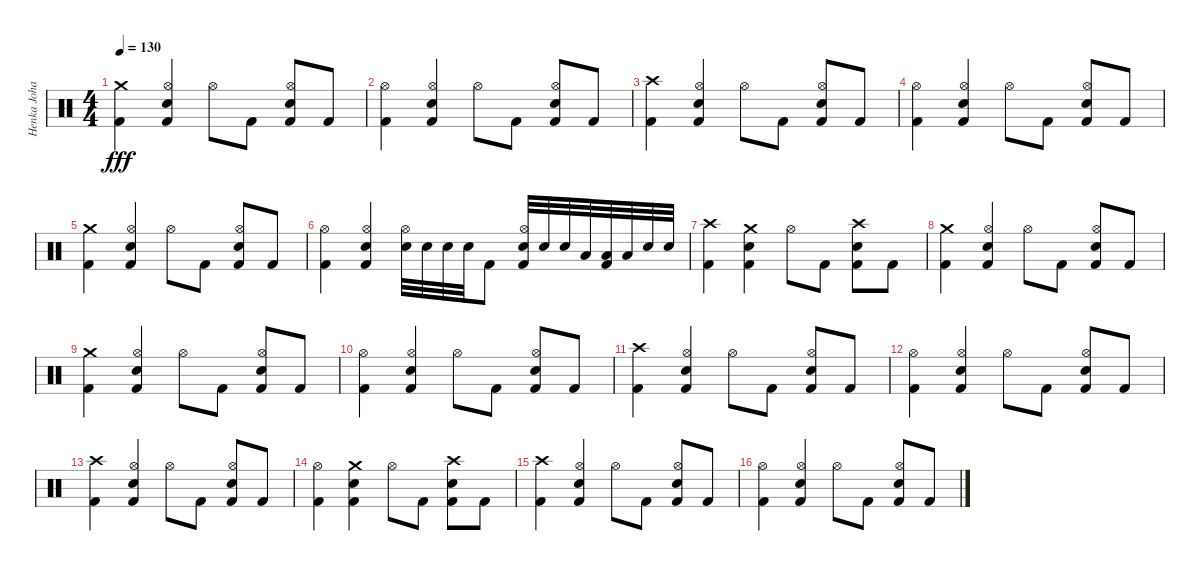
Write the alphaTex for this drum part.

\track ("Henka Johansson" "Henka Joha") {instrument percussion}
\staff {score}
\articulation defaults
\ts (4 4)
\tempo 130
\clef neutral
\ks c
("Crash medium (hit)" "Kick (hit) 2").4{dy fff} ("Hi-Hat (open)" "Electric Snare (hit)" "Kick (hit) 2").4 "Hi-Hat (open)".8 "Kick (hit) 2".8 ("Hi-Hat (open)" "Electric Snare (hit)" "Kick (hit) 2").8 "Kick (hit) 2".8 |
("Hi-Hat (open)" "Kick (hit) 2").4 ("Hi-Hat (open)" "Electric Snare (hit)" "Kick (hit) 2").4 "Hi-Hat (open)".8 "Kick (hit) 2".8 ("Hi-Hat (open)" "Electric Snare (hit)" "Kick (hit) 2").8 "Kick (hit) 2".8 |
("Crash high (hit)" "Kick (hit) 2").4 ("Hi-Hat (open)" "Electric Snare (hit)" "Kick (hit) 2").4 "Hi-Hat (open)".8 "Kick (hit) 2".8 ("Hi-Hat (open)" "Electric Snare (hit)" "Kick (hit) 2").8 "Kick (hit) 2".8 |
("Hi-Hat (open)" "Kick (hit) 2").4 ("Hi-Hat (open)" "Electric Snare (hit)" "Kick (hit) 2").4 "Hi-Hat (open)".8 "Kick (hit) 2".8 ("Hi-Hat (open)" "Electric Snare (hit)" "Kick (hit) 2").8 "Kick (hit) 2".8 |
("Crash medium (hit)" "Kick (hit) 2").4 ("Hi-Hat (open)" "Electric Snare (hit)" "Kick (hit) 2").4 "Hi-Hat (open)".8 "Kick (hit) 2".8 ("Hi-Hat (open)" "Electric Snare (hit)" "Kick (hit) 2").8 "Kick (hit) 2".8 |
("Hi-Hat (open)" "Kick (hit) 2").4 ("Hi-Hat (open)" "Electric Snare (hit)" "Kick (hit) 2").4 ("Hi-Hat (open)" "Electric Snare (hit)").32 "Electric Snare (hit)".32 "Electric Snare (hit)".32 "Electric Snare (hit)".32 "Kick (hit) 2".8 ("Hi-Hat (open)" "Electric Snare (hit)" "Kick (hit) 2").32 "Electric Snare (hit)".32 "Electric Snare (hit)".32 "Low Tom (hit)".32 ("Low Tom (hit)" "Kick (hit) 2").32 "Low Tom (hit)".32 "Electric Snare (hit)".32 "Electric Snare (hit)".32 |
("Crash high (hit)" "Kick (hit) 2").4 ("Crash medium (hit)" "Electric Snare (hit)" "Kick (hit) 2").4 "Hi-Hat (open)".8 "Kick (hit) 2".8 ("Crash high (hit)" "Electric Snare (hit)" "Kick (hit) 2").8 "Kick (hit) 2".8 |
("Crash medium (hit)" "Kick (hit) 2").4 ("Hi-Hat (open)" "Electric Snare (hit)" "Kick (hit) 2").4 "Hi-Hat (open)".8 "Kick (hit) 2".8 ("Hi-Hat (open)" "Electric Snare (hit)" "Kick (hit) 2").8 "Kick (hit) 2".8 |
("Crash medium (hit)" "Kick (hit) 2").4 ("Hi-Hat (open)" "Electric Snare (hit)" "Kick (hit) 2").4 "Hi-Hat (open)".8 "Kick (hit) 2".8 ("Hi-Hat (open)" "Electric Snare (hit)" "Kick (hit) 2").8 "Kick (hit) 2".8 |
("Hi-Hat (open)" "Kick (hit) 2").4 ("Hi-Hat (open)" "Electric Snare (hit)" "Kick (hit) 2").4 "Hi-Hat (open)".8 "Kick (hit) 2".8 ("Hi-Hat (open)" "Electric Snare (hit)" "Kick (hit) 2").8 "Kick (hit) 2".8 |
("Crash high (hit)" "Kick (hit) 2").4 ("Hi-Hat (open)" "Electric Snare (hit)" "Kick (hit) 2").4 "Hi-Hat (open)".8 "Kick (hit) 2".8 ("Hi-Hat (open)" "Electric Snare (hit)" "Kick (hit) 2").8 "Kick (hit) 2".8 |
("Hi-Hat (open)" "Kick (hit) 2").4 ("Hi-Hat (open)" "Electric Snare (hit)" "Kick (hit) 2").4 "Hi-Hat (open)".8 "Kick (hit) 2".8 ("Hi-Hat (open)" "Electric Snare (hit)" "Kick (hit) 2").8 "Kick (hit) 2".8 |
("Crash high (hit)" "Kick (hit) 2").4 ("Hi-Hat (open)" "Electric Snare (hit)" "Kick (hit) 2").4 "Hi-Hat (open)".8 "Kick (hit) 2".8 ("Hi-Hat (open)" "Electric Snare (hit)" "Kick (hit) 2").8 "Kick (hit) 2".8 |
("Hi-Hat (open)" "Kick (hit) 2").4 ("Crash medium (hit)" "Electric Snare (hit)" "Kick (hit) 2").4 "Hi-Hat (open)".8 "Kick (hit) 2".8 ("Crash high (hit)" "Electric Snare (hit)" "Kick (hit) 2").8 "Kick (hit) 2".8 |
("Crash high (hit)" "Kick (hit) 2").4 ("Hi-Hat (open)" "Electric Snare (hit)" "Kick (hit) 2").4 "Hi-Hat (open)".8 "Kick (hit) 2".8 ("Hi-Hat (open)" "Electric Snare (hit)" "Kick (hit) 2").8 "Kick (hit) 2".8 |
("Hi-Hat (open)" "Kick (hit) 2").4 ("Hi-Hat (open)" "Electric Snare (hit)" "Kick (hit) 2").4 "Hi-Hat (open)".8 "Kick (hit) 2".8 ("Hi-Hat (open)" "Electric Snare (hit)" "Kick (hit) 2").8 "Kick (hit) 2".8
